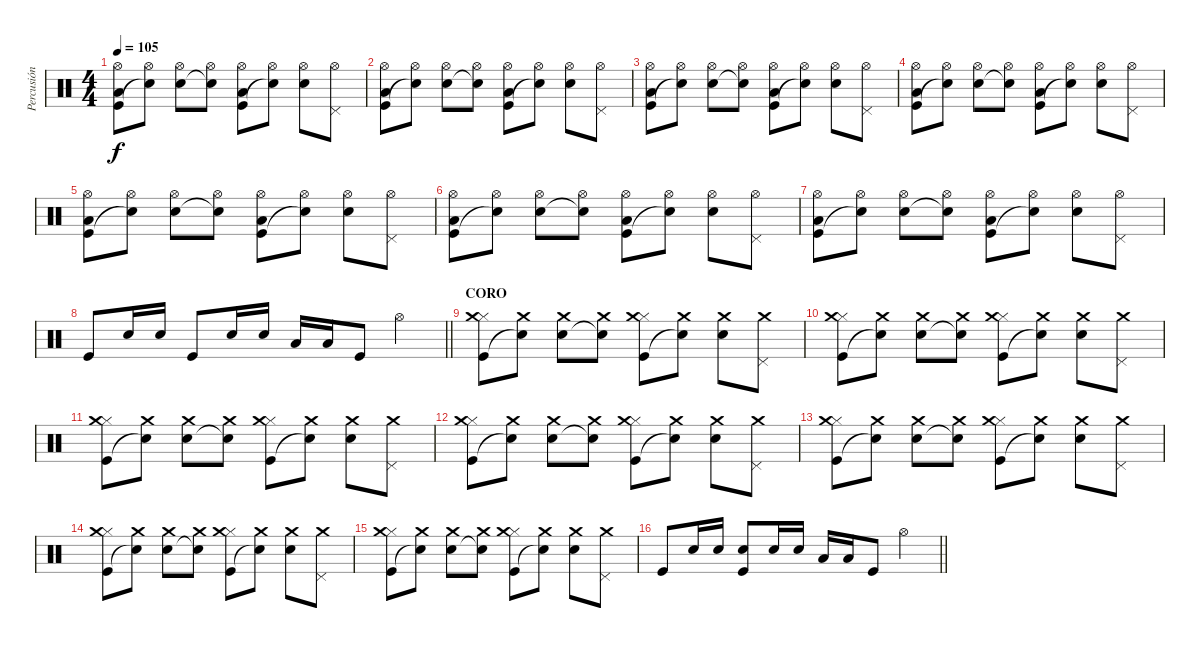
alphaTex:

\track ("Percusión" "Percusión") {instrument percussion}
\staff {score}
\articulation defaults
\ts (4 4)
\tempo 105
\clef neutral
\ks c
("Kick (hit)" "Low Floor Tom (hit)" "Hi-Hat (open)").8{dy f} ("Snare (hit)"{t} "Hi-Hat (open)").8 ("Snare (hit) 2" "Hi-Hat (open)").8 ("Snare (hit)"{t} "Hi-Hat (open)").8 ("Kick (hit)" "Low Floor Tom (hit)" "Hi-Hat (open)").8 ("Snare (hit)"{t} "Hi-Hat (open)").8 ("Electric Snare (hit)" "Hi-Hat (open)").8 ("Pedal Hi-Hat (hit)" "Hi-Hat (open)").8 |
("Kick (hit)" "Low Floor Tom (hit)" "Hi-Hat (open)").8 ("Snare (hit)"{t} "Hi-Hat (open)").8 ("Snare (hit) 2" "Hi-Hat (open)").8 ("Snare (hit)"{t} "Hi-Hat (open)").8 ("Kick (hit)" "Low Floor Tom (hit)" "Hi-Hat (open)").8 ("Snare (hit)"{t} "Hi-Hat (open)").8 ("Electric Snare (hit)" "Hi-Hat (open)").8 ("Pedal Hi-Hat (hit)" "Hi-Hat (open)").8 |
("Kick (hit)" "Low Floor Tom (hit)" "Hi-Hat (open)").8 ("Snare (hit)"{t} "Hi-Hat (open)").8 ("Snare (hit) 2" "Hi-Hat (open)").8 ("Snare (hit)"{t} "Hi-Hat (open)").8 ("Kick (hit)" "Low Floor Tom (hit)" "Hi-Hat (open)").8 ("Snare (hit)"{t} "Hi-Hat (open)").8 ("Electric Snare (hit)" "Hi-Hat (open)").8 ("Pedal Hi-Hat (hit)" "Hi-Hat (open)").8 |
("Kick (hit)" "Low Floor Tom (hit)" "Hi-Hat (open)").8 ("Snare (hit)"{t} "Hi-Hat (open)").8 ("Snare (hit) 2" "Hi-Hat (open)").8 ("Snare (hit)"{t} "Hi-Hat (open)").8 ("Kick (hit)" "Low Floor Tom (hit)" "Hi-Hat (open)").8 ("Snare (hit)"{t} "Hi-Hat (open)").8 ("Electric Snare (hit)" "Hi-Hat (open)").8 ("Pedal Hi-Hat (hit)" "Hi-Hat (open)").8 |
("Kick (hit)" "Low Floor Tom (hit)" "Hi-Hat (open)").8 ("Snare (hit)"{t} "Hi-Hat (open)").8 ("Snare (hit) 2" "Hi-Hat (open)").8 ("Snare (hit)"{t} "Hi-Hat (open)").8 ("Kick (hit)" "Low Floor Tom (hit)" "Hi-Hat (open)").8 ("Snare (hit)"{t} "Hi-Hat (open)").8 ("Electric Snare (hit)" "Hi-Hat (open)").8 ("Pedal Hi-Hat (hit)" "Hi-Hat (open)").8 |
("Kick (hit)" "Low Floor Tom (hit)" "Hi-Hat (open)").8 ("Snare (hit)"{t} "Hi-Hat (open)").8 ("Snare (hit) 2" "Hi-Hat (open)").8 ("Snare (hit)"{t} "Hi-Hat (open)").8 ("Kick (hit)" "Low Floor Tom (hit)" "Hi-Hat (open)").8 ("Snare (hit)"{t} "Hi-Hat (open)").8 ("Electric Snare (hit)" "Hi-Hat (open)").8 ("Pedal Hi-Hat (hit)" "Hi-Hat (open)").8 |
("Kick (hit)" "Low Floor Tom (hit)" "Hi-Hat (open)").8 ("Snare (hit)"{t} "Hi-Hat (open)").8 ("Snare (hit) 2" "Hi-Hat (open)").8 ("Snare (hit)"{t} "Hi-Hat (open)").8 ("Kick (hit)" "Low Floor Tom (hit)" "Hi-Hat (open)").8 ("Snare (hit)"{t} "Hi-Hat (open)").8 ("Electric Snare (hit)" "Hi-Hat (open)").8 ("Pedal Hi-Hat (hit)" "Hi-Hat (open)").8 |
\barLineRight lightlight "Kick (hit)".8 "Electric Snare (hit)".16 "Electric Snare (hit)".16 "Kick (hit)".8 "Electric Snare (hit)".16 "Electric Snare (hit)".16 "Low Tom (hit)".16 "Low Floor Tom (hit)".16 "Kick (hit)".8 "Hi-Hat (open)".4
|
\section ("" "CORO")
("Kick (hit)" "Hi-Hat (closed)" "Crash medium (hit)").8 ("Snare (hit)"{t} "Crash medium (hit)").8 ("Electric Snare (hit)" "Crash medium (hit)").8 ("Snare (hit)"{t} "Crash medium (hit)").8 ("Kick (hit)" "Hi-Hat (closed)" "Crash medium (hit)").8 ("Snare (hit)"{t} "Crash medium (hit)").8 ("Electric Snare (hit)" "Crash medium (hit)").8 ("Pedal Hi-Hat (hit)" "Crash medium (hit)").8 |
("Kick (hit)" "Hi-Hat (closed)" "Crash medium (hit)").8 ("Snare (hit)"{t} "Crash medium (hit)").8 ("Electric Snare (hit)" "Crash medium (hit)").8 ("Snare (hit)"{t} "Crash medium (hit)").8 ("Kick (hit)" "Hi-Hat (closed)" "Crash medium (hit)").8 ("Snare (hit)"{t} "Crash medium (hit)").8 ("Electric Snare (hit)" "Crash medium (hit)").8 ("Pedal Hi-Hat (hit)" "Crash medium (hit)").8 |
("Kick (hit)" "Hi-Hat (closed)" "Crash medium (hit)").8 ("Snare (hit)"{t} "Crash medium (hit)").8 ("Electric Snare (hit)" "Crash medium (hit)").8 ("Snare (hit)"{t} "Crash medium (hit)").8 ("Kick (hit)" "Hi-Hat (closed)" "Crash medium (hit)").8 ("Snare (hit)"{t} "Crash medium (hit)").8 ("Electric Snare (hit)" "Crash medium (hit)").8 ("Pedal Hi-Hat (hit)" "Crash medium (hit)").8 |
("Kick (hit)" "Hi-Hat (closed)" "Crash medium (hit)").8 ("Snare (hit)"{t} "Crash medium (hit)").8 ("Electric Snare (hit)" "Crash medium (hit)").8 ("Snare (hit)"{t} "Crash medium (hit)").8 ("Kick (hit)" "Hi-Hat (closed)" "Crash medium (hit)").8 ("Snare (hit)"{t} "Crash medium (hit)").8 ("Electric Snare (hit)" "Crash medium (hit)").8 ("Pedal Hi-Hat (hit)" "Crash medium (hit)").8 |
("Kick (hit)" "Hi-Hat (closed)" "Crash medium (hit)").8 ("Snare (hit)"{t} "Crash medium (hit)").8 ("Electric Snare (hit)" "Crash medium (hit)").8 ("Snare (hit)"{t} "Crash medium (hit)").8 ("Kick (hit)" "Hi-Hat (closed)" "Crash medium (hit)").8 ("Snare (hit)"{t} "Crash medium (hit)").8 ("Electric Snare (hit)" "Crash medium (hit)").8 ("Pedal Hi-Hat (hit)" "Crash medium (hit)").8 |
("Kick (hit)" "Hi-Hat (closed)" "Crash medium (hit)").8 ("Snare (hit)"{t} "Crash medium (hit)").8 ("Electric Snare (hit)" "Crash medium (hit)").8 ("Snare (hit)"{t} "Crash medium (hit)").8 ("Kick (hit)" "Hi-Hat (closed)" "Crash medium (hit)").8 ("Snare (hit)"{t} "Crash medium (hit)").8 ("Electric Snare (hit)" "Crash medium (hit)").8 ("Pedal Hi-Hat (hit)" "Crash medium (hit)").8 |
("Kick (hit)" "Hi-Hat (closed)" "Crash medium (hit)").8 ("Snare (hit)"{t} "Crash medium (hit)").8 ("Electric Snare (hit)" "Crash medium (hit)").8 ("Snare (hit)"{t} "Crash medium (hit)").8 ("Kick (hit)" "Hi-Hat (closed)" "Crash medium (hit)").8 ("Snare (hit)"{t} "Crash medium (hit)").8 ("Electric Snare (hit)" "Crash medium (hit)").8 ("Pedal Hi-Hat (hit)" "Crash medium (hit)").8 |
\barLineRight lightlight "Kick (hit)".8 "Electric Snare (hit)".16 "Electric Snare (hit)".16
("Electric Snare (hit)" "Kick (hit)").8 "Electric Snare (hit)".16 "Electric Snare (hit)".16 "Low Tom (hit)".16 "Low Floor Tom (hit)".16 "Kick (hit)".8 "Hi-Hat (open)".4
